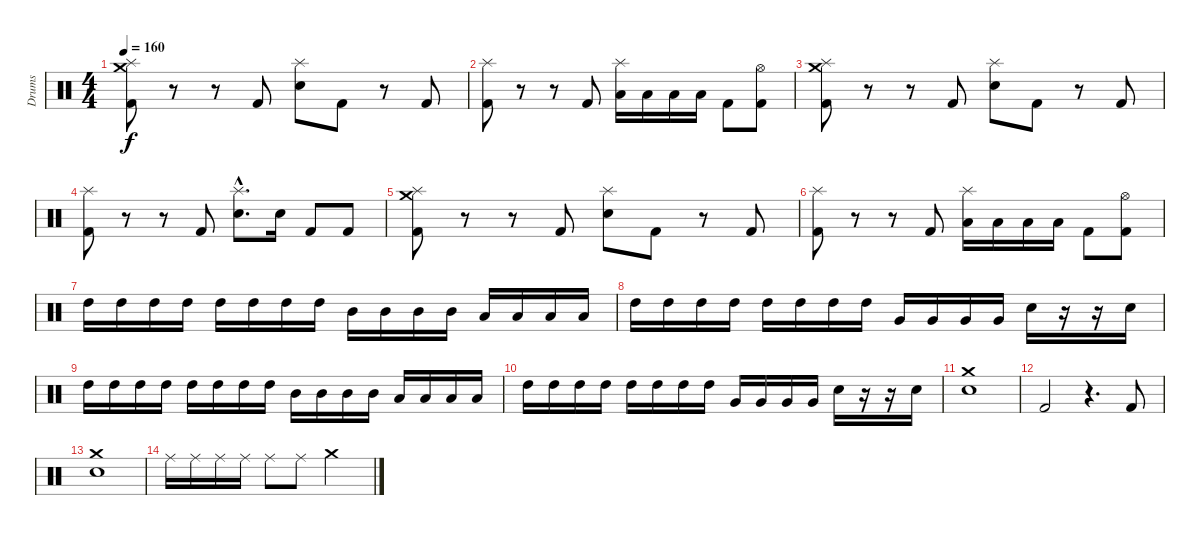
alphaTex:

\track ("Drums" "Drums") {instrument percussion}
\staff {score}
\articulation defaults
\ts (4 4)
\tempo 160
\clef neutral
\ks c
("Splash (hit)" "Crash medium (hit)" "Kick (hit) 2").8{dy f} r.8 r.8 "Kick (hit) 2".8 ("Splash (hit)" "Electric Snare (hit)").8 "Kick (hit) 2".8 r.8 "Kick (hit) 2".8 |
("Splash (hit)" "Kick (hit) 2").8 r.8 r.8 "Kick (hit) 2".8 ("Splash (hit)" "Low Tom (hit)").16 "Low Tom (hit)".16 "Low Tom (hit)".16 "Low Tom (hit)".16 "Kick (hit) 2".8 ("Hi-Hat (open)" "Kick (hit) 2").8 |
("Splash (hit)" "Crash medium (hit)" "Kick (hit) 2").8 r.8 r.8 "Kick (hit) 2".8 ("Splash (hit)" "Electric Snare (hit)").8 "Kick (hit) 2".8 r.8 "Kick (hit) 2".8 |
("Splash (hit)" "Kick (hit) 2").8 r.8 r.8 "Kick (hit) 2".8 ("Splash (hit)"{hac} "Electric Snare (hit)"{hac}).8{d} "Electric Snare (hit)".16 "Kick (hit) 2".8 "Kick (hit) 2".8 |
("Splash (hit)" "Crash medium (hit)" "Kick (hit) 2").8 r.8 r.8 "Kick (hit) 2".8 ("Splash (hit)" "Electric Snare (hit)").8 "Kick (hit) 2".8 r.8 "Kick (hit) 2".8 |
("Splash (hit)" "Kick (hit) 2").8 r.8 r.8 "Kick (hit) 2".8 ("Splash (hit)" "Low Tom (hit)").16 "Low Tom (hit)".16 "Low Tom (hit)".16 "Low Tom (hit)".16 "Kick (hit) 2".8 ("Hi-Hat (open)" "Kick (hit) 2").8 |
\section ("" " ")
"High Tom (hit)".16 "High Tom (hit)".16 "High Tom (hit)".16 "High Tom (hit)".16 "High Tom (hit)".16 "High Tom (hit)".16 "High Tom (hit)".16 "High Tom (hit)".16 "Mid Tom (hit)".16 "Mid Tom (hit)".16 "Mid Tom (hit)".16 "Mid Tom (hit)".16 "Low Tom (hit)".16 "Low Tom (hit)".16 "Low Tom (hit)".16 "Low Tom (hit)".16 |
"High Tom (hit)".16 "High Tom (hit)".16 "High Tom (hit)".16 "High Tom (hit)".16 "High Tom (hit)".16 "High Tom (hit)".16 "High Tom (hit)".16 "High Tom (hit)".16 "Very Low Tom (hit)".16 "Very Low Tom (hit)".16 "Very Low Tom (hit)".16 "Very Low Tom (hit)".16 "Electric Snare (hit)".16 r.16 r.16 "Electric Snare (hit)".16 |
"High Tom (hit)".16 "High Tom (hit)".16 "High Tom (hit)".16 "High Tom (hit)".16 "High Tom (hit)".16 "High Tom (hit)".16 "High Tom (hit)".16 "High Tom (hit)".16 "Mid Tom (hit)".16 "Mid Tom (hit)".16 "Mid Tom (hit)".16 "Mid Tom (hit)".16 "Low Tom (hit)".16 "Low Tom (hit)".16 "Low Tom (hit)".16 "Low Tom (hit)".16 |
"High Tom (hit)".16 "High Tom (hit)".16 "High Tom (hit)".16 "High Tom (hit)".16 "High Tom (hit)".16 "High Tom (hit)".16 "High Tom (hit)".16 "High Tom (hit)".16 "Very Low Tom (hit)".16 "Very Low Tom (hit)".16 "Very Low Tom (hit)".16 "Very Low Tom (hit)".16 "Electric Snare (hit)".16 r.16 r.16 "Electric Snare (hit)".16 |
("Crash medium (hit)" "Electric Snare (hit)").1 |
"Kick (hit) 2".2 r.4{d} "Kick (hit) 2".8 |
("Crash medium (hit)" "Electric Snare (hit)").1 |
"Ride (middle)".16 "Ride (middle)".16 "Ride (middle)".16 "Ride (middle)".16 "Ride (middle)".8 "Ride (middle)".8 "Crash medium (hit)".2
